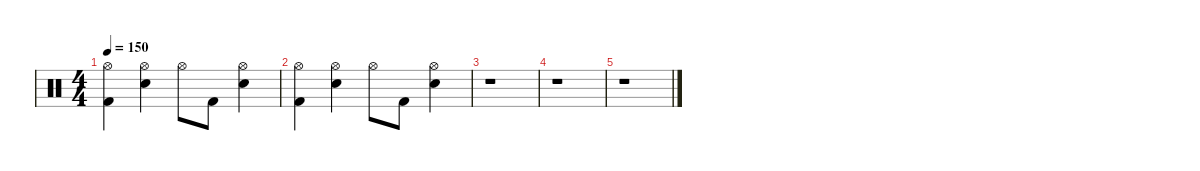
\defaultSystemsLayout 4
\hideDynamics
\bracketExtendMode nobrackets
\singleTrackTrackNamePolicy hidden
\multiTrackTrackNamePolicy hidden
\firstSystemTrackNameMode fullname
\otherSystemsTrackNameOrientation horizontal
\track ("Percussions" "drm.") {defaultSystemsLayout 4 instrument percussion}
\staff {score}
\articulation defaults
\ts (4 4)
\tempo 150
\clef neutral
\ks c
("Hi-Hat (open)" "Kick (hit) 2").4{dy f beam Down} ("Hi-Hat (open)" "Snare (hit) 2").4{beam Down} "Hi-Hat (open)".8{beam Down} "Kick (hit) 2".8{dy fff beam Down} ("Hi-Hat (open)" "Snare (hit) 2").4{dy f beam Down} |
("Hi-Hat (open)" "Kick (hit) 2").4{beam Down} ("Hi-Hat (open)" "Snare (hit) 2").4{beam Down} "Hi-Hat (open)".8{beam Down} "Kick (hit) 2".8{dy fff beam Down} ("Hi-Hat (open)" "Snare (hit) 2").4{dy f beam Down} |
r.1{beam Down} |
r.1{beam Down} |
r.1{beam Down}
